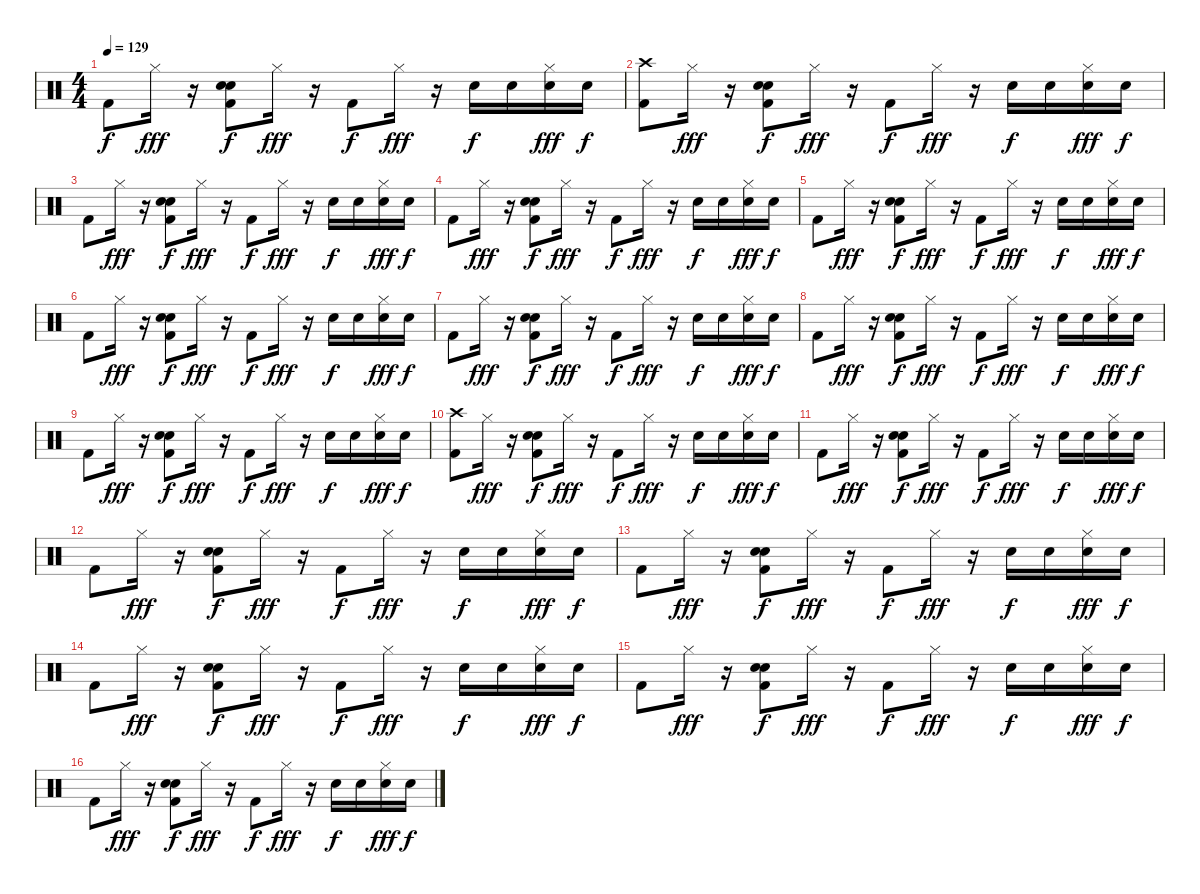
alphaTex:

\track "" {instrument percussion}
\staff {score}
\articulation defaults
\ts (4 4)
\tempo 129
\clef neutral
\ks c "Kick (hit) 2".8{dy f} "Hi-Hat (closed)".16{dy fff}
r.16 ("Snare (hit) 2" "Hand Clap (hit)" "Kick (hit) 2").8{dy f} "Hi-Hat (closed)".16{dy fff} r.16 "Kick (hit) 2".8{dy f} "Hi-Hat (closed)".16{dy fff} r.16 "Snare (hit) 2".16{dy f} "Snare (hit) 2".16 ("Snare (hit) 2" "Hi-Hat (closed)").16{dy fff} "Snare (hit) 2".16{dy f} |
("Kick (hit) 2" "Crash high (hit)").8 "Hi-Hat (closed)".16{dy fff} r.16 ("Kick (hit) 2" "Snare (hit) 2" "Hand Clap (hit)").8{dy f} "Hi-Hat (closed)".16{dy fff} r.16 "Kick (hit) 2".8{dy f} "Hi-Hat (closed)".16{dy fff} r.16 "Snare (hit) 2".16{dy f} "Snare (hit) 2".16 ("Snare (hit) 2" "Hi-Hat (closed)").16{dy fff} "Snare (hit) 2".16{dy f} |
"Kick (hit) 2".8 "Hi-Hat (closed)".16{dy fff} r.16 ("Snare (hit) 2" "Hand Clap (hit)" "Kick (hit) 2").8{dy f} "Hi-Hat (closed)".16{dy fff} r.16 "Kick (hit) 2".8{dy f} "Hi-Hat (closed)".16{dy fff} r.16 "Snare (hit) 2".16{dy f} "Snare (hit) 2".16 ("Snare (hit) 2" "Hi-Hat (closed)").16{dy fff} "Snare (hit) 2".16{dy f} |
"Kick (hit) 2".8 "Hi-Hat (closed)".16{dy fff} r.16 ("Snare (hit) 2" "Hand Clap (hit)" "Kick (hit) 2").8{dy f} "Hi-Hat (closed)".16{dy fff} r.16 "Kick (hit) 2".8{dy f} "Hi-Hat (closed)".16{dy fff} r.16 "Snare (hit) 2".16{dy f} "Snare (hit) 2".16 ("Snare (hit) 2" "Hi-Hat (closed)").16{dy fff} "Snare (hit) 2".16{dy f} |
"Kick (hit) 2".8 "Hi-Hat (closed)".16{dy fff} r.16 ("Snare (hit) 2" "Hand Clap (hit)" "Kick (hit) 2").8{dy f} "Hi-Hat (closed)".16{dy fff} r.16 "Kick (hit) 2".8{dy f} "Hi-Hat (closed)".16{dy fff} r.16 "Snare (hit) 2".16{dy f} "Snare (hit) 2".16 ("Snare (hit) 2" "Hi-Hat (closed)").16{dy fff} "Snare (hit) 2".16{dy f} |
"Kick (hit) 2".8 "Hi-Hat (closed)".16{dy fff} r.16 ("Snare (hit) 2" "Hand Clap (hit)" "Kick (hit) 2").8{dy f} "Hi-Hat (closed)".16{dy fff} r.16 "Kick (hit) 2".8{dy f} "Hi-Hat (closed)".16{dy fff} r.16 "Snare (hit) 2".16{dy f} "Snare (hit) 2".16 ("Snare (hit) 2" "Hi-Hat (closed)").16{dy fff} "Snare (hit) 2".16{dy f} |
"Kick (hit) 2".8 "Hi-Hat (closed)".16{dy fff} r.16 ("Snare (hit) 2" "Hand Clap (hit)" "Kick (hit) 2").8{dy f} "Hi-Hat (closed)".16{dy fff} r.16 "Kick (hit) 2".8{dy f} "Hi-Hat (closed)".16{dy fff} r.16 "Snare (hit) 2".16{dy f} "Snare (hit) 2".16 ("Snare (hit) 2" "Hi-Hat (closed)").16{dy fff} "Snare (hit) 2".16{dy f} |
"Kick (hit) 2".8 "Hi-Hat (closed)".16{dy fff} r.16 ("Kick (hit) 2" "Snare (hit) 2" "Hand Clap (hit)").8{dy f} "Hi-Hat (closed)".16{dy fff} r.16 "Kick (hit) 2".8{dy f} "Hi-Hat (closed)".16{dy fff} r.16 "Snare (hit) 2".16{dy f} "Snare (hit) 2".16 ("Snare (hit) 2" "Hi-Hat (closed)").16{dy fff} "Snare (hit) 2".16{dy f} |
"Kick (hit) 2".8 "Hi-Hat (closed)".16{dy fff} r.16 ("Snare (hit) 2" "Hand Clap (hit)" "Kick (hit) 2").8{dy f} "Hi-Hat (closed)".16{dy fff} r.16 "Kick (hit) 2".8{dy f} "Hi-Hat (closed)".16{dy fff} r.16 "Snare (hit) 2".16{dy f} "Snare (hit) 2".16 ("Snare (hit) 2" "Hi-Hat (closed)").16{dy fff} "Snare (hit) 2".16{dy f} |
("Kick (hit) 2" "Crash high (hit)").8 "Hi-Hat (closed)".16{dy fff} r.16 ("Kick (hit) 2" "Snare (hit) 2" "Hand Clap (hit)").8{dy f} "Hi-Hat (closed)".16{dy fff} r.16 "Kick (hit) 2".8{dy f} "Hi-Hat (closed)".16{dy fff} r.16 "Snare (hit) 2".16{dy f} "Snare (hit) 2".16 ("Snare (hit) 2" "Hi-Hat (closed)").16{dy fff} "Snare (hit) 2".16{dy f} |
"Kick (hit) 2".8 "Hi-Hat (closed)".16{dy fff} r.16 ("Snare (hit) 2" "Hand Clap (hit)" "Kick (hit) 2").8{dy f} "Hi-Hat (closed)".16{dy fff} r.16 "Kick (hit) 2".8{dy f} "Hi-Hat (closed)".16{dy fff} r.16 "Snare (hit) 2".16{dy f} "Snare (hit) 2".16 ("Snare (hit) 2" "Hi-Hat (closed)").16{dy fff} "Snare (hit) 2".16{dy f} |
"Kick (hit) 2".8 "Hi-Hat (closed)".16{dy fff} r.16 ("Snare (hit) 2" "Hand Clap (hit)" "Kick (hit) 2").8{dy f} "Hi-Hat (closed)".16{dy fff} r.16 "Kick (hit) 2".8{dy f} "Hi-Hat (closed)".16{dy fff} r.16 "Snare (hit) 2".16{dy f} "Snare (hit) 2".16 ("Snare (hit) 2" "Hi-Hat (closed)").16{dy fff} "Snare (hit) 2".16{dy f} |
"Kick (hit) 2".8 "Hi-Hat (closed)".16{dy fff} r.16 ("Snare (hit) 2" "Hand Clap (hit)" "Kick (hit) 2").8{dy f} "Hi-Hat (closed)".16{dy fff} r.16 "Kick (hit) 2".8{dy f} "Hi-Hat (closed)".16{dy fff} r.16 "Snare (hit) 2".16{dy f} "Snare (hit) 2".16 ("Snare (hit) 2" "Hi-Hat (closed)").16{dy fff} "Snare (hit) 2".16{dy f} |
"Kick (hit) 2".8 "Hi-Hat (closed)".16{dy fff} r.16 ("Snare (hit) 2" "Hand Clap (hit)" "Kick (hit) 2").8{dy f} "Hi-Hat (closed)".16{dy fff} r.16 "Kick (hit) 2".8{dy f} "Hi-Hat (closed)".16{dy fff} r.16 "Snare (hit) 2".16{dy f} "Snare (hit) 2".16 ("Snare (hit) 2" "Hi-Hat (closed)").16{dy fff} "Snare (hit) 2".16{dy f} |
"Kick (hit) 2".8 "Hi-Hat (closed)".16{dy fff} r.16 ("Snare (hit) 2" "Hand Clap (hit)" "Kick (hit) 2").8{dy f} "Hi-Hat (closed)".16{dy fff} r.16 "Kick (hit) 2".8{dy f} "Hi-Hat (closed)".16{dy fff} r.16 "Snare (hit) 2".16{dy f} "Snare (hit) 2".16 ("Snare (hit) 2" "Hi-Hat (closed)").16{dy fff} "Snare (hit) 2".16{dy f} |
"Kick (hit) 2".8 "Hi-Hat (closed)".16{dy fff} r.16 ("Kick (hit) 2" "Snare (hit) 2" "Hand Clap (hit)").8{dy f} "Hi-Hat (closed)".16{dy fff} r.16 "Kick (hit) 2".8{dy f} "Hi-Hat (closed)".16{dy fff} r.16 "Snare (hit) 2".16{dy f} "Snare (hit) 2".16 ("Snare (hit) 2" "Hi-Hat (closed)").16{dy fff} "Snare (hit) 2".16{dy f}
